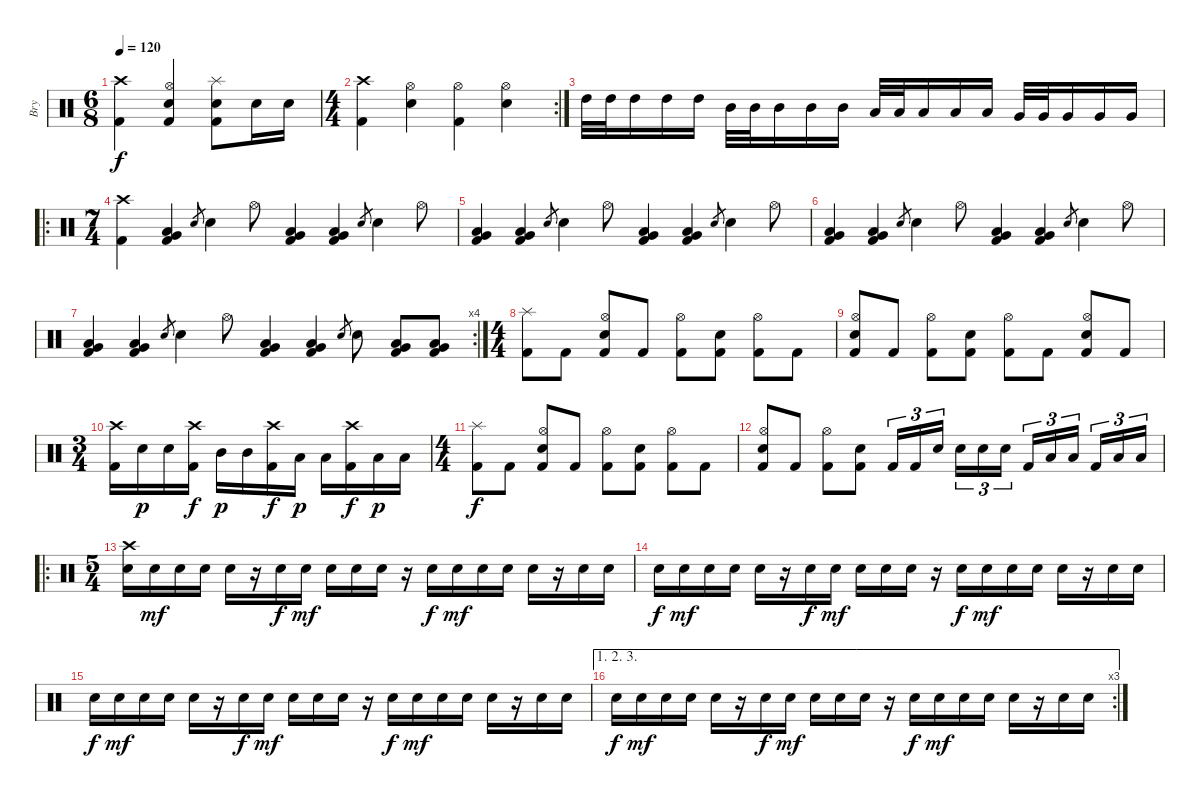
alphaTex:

\track ("Bry" "Bry") {instrument percussion}
\staff {score}
\articulation defaults
\ts (6 8)
\tempo 120
\clef neutral
\ks c
("Crash high (hit)" "Kick (hit) 2").4{dy f} ("Hi-Hat (open)" "Snare (hit) 2" "Kick (hit) 2").4 ("Splash (hit)" "Snare (hit) 2" "Kick (hit) 2").8 "Snare (hit) 2".16 "Snare (hit) 2".16 |
\rc 2
\ts (4 4)
("Crash high (hit)" "Kick (hit) 2").4 ("Hi-Hat (open)" "Snare (hit) 2").4 ("Hi-Hat (open)" "Kick (hit) 2").4 ("Hi-Hat (open)" "Snare (hit) 2").4 |
"High Tom (hit)".32 "High Tom (hit)".32 "High Tom (hit)".16 "High Tom (hit)".16 "High Tom (hit)".16 "Mid Tom (hit)".32 "Mid Tom (hit)".32 "Mid Tom (hit)".16 "Mid Tom (hit)".16 "Mid Tom (hit)".16 "Low Tom (hit)".32 "Low Tom (hit)".32 "Low Tom (hit)".16 "Low Tom (hit)".16 "Low Tom (hit)".16 "Very Low Tom (hit)".32 "Very Low Tom (hit)".32 "Very Low Tom (hit)".16 "Very Low Tom (hit)".16 "Very Low Tom (hit)".16 |
\ro
\ts (7 4)
("Crash high (hit)" "Kick (hit) 2").4 ("Low Floor Tom (hit)" "Very Low Tom (hit)" "Kick (hit) 2").4 "Snare (hit) 2".8{gr} "Snare (hit) 2".4 "Hi-Hat (open)".8 ("Low Floor Tom (hit)" "Very Low Tom (hit)" "Kick (hit) 2").4 ("Low Floor Tom (hit)" "Very Low Tom (hit)" "Kick (hit) 2").4 "Snare (hit) 2".8{gr} "Snare (hit) 2".4 "Hi-Hat (open)".8 |
("Low Floor Tom (hit)" "Very Low Tom (hit)" "Kick (hit) 2").4 ("Low Floor Tom (hit)" "Very Low Tom (hit)" "Kick (hit) 2").4 "Snare (hit) 2".8{gr} "Snare (hit) 2".4 "Hi-Hat (open)".8 ("Low Floor Tom (hit)" "Very Low Tom (hit)" "Kick (hit) 2").4 ("Low Floor Tom (hit)" "Very Low Tom (hit)" "Kick (hit) 2").4 "Snare (hit) 2".8{gr} "Snare (hit) 2".4 "Hi-Hat (open)".8 |
("Low Floor Tom (hit)" "Very Low Tom (hit)" "Kick (hit) 2").4 ("Low Floor Tom (hit)" "Very Low Tom (hit)" "Kick (hit) 2").4 "Snare (hit) 2".8{gr} "Snare (hit) 2".4 "Hi-Hat (open)".8 ("Low Floor Tom (hit)" "Very Low Tom (hit)" "Kick (hit) 2").4 ("Low Floor Tom (hit)" "Very Low Tom (hit)" "Kick (hit) 2").4 "Snare (hit) 2".8{gr} "Snare (hit) 2".4 "Hi-Hat (open)".8 |
\rc 4
("Low Floor Tom (hit)" "Very Low Tom (hit)" "Kick (hit) 2").4 ("Low Floor Tom (hit)" "Very Low Tom (hit)" "Kick (hit) 2").4 "Snare (hit) 2".8{gr} "Snare (hit) 2".4 "Hi-Hat (open)".8 ("Low Floor Tom (hit)" "Very Low Tom (hit)" "Kick (hit) 2").4 ("Low Floor Tom (hit)" "Very Low Tom (hit)" "Kick (hit) 2").4 "Snare (hit) 2".8{gr} "Snare (hit) 2".8 ("Very Low Tom (hit)" "Low Floor Tom (hit)" "Kick (hit) 2").8 ("Very Low Tom (hit)" "Low Floor Tom (hit)" "Kick (hit) 2").8 |
\ts (4 4)
("Splash (hit)" "Kick (hit) 2").8 "Kick (hit) 2".8 ("Hi-Hat (open)" "Snare (hit) 2" "Kick (hit) 2").8 "Kick (hit) 2".8 ("Hi-Hat (open)" "Kick (hit) 2").8 ("Snare (hit) 2" "Kick (hit) 2").8 ("Hi-Hat (open)" "Kick (hit) 2").8 "Kick (hit) 2".8 |
("Hi-Hat (open)" "Snare (hit) 2" "Kick (hit) 2").8 "Kick (hit) 2".8 ("Hi-Hat (open)" "Kick (hit) 2").8 ("Snare (hit) 2" "Kick (hit) 2").8 ("Hi-Hat (open)" "Kick (hit) 2").8 "Kick (hit) 2".8 ("Hi-Hat (open)" "Snare (hit) 2" "Kick (hit) 2").8 "Kick (hit) 2".8 |
\ts (3 4)
("Crash high (hit)" "Kick (hit) 2").16 "Snare (hit) 2".16{dy p} "Snare (hit) 2".16 ("Crash high (hit)" "Kick (hit) 2").16{dy f} "Mid Tom (hit)".16{dy p} "Mid Tom (hit)".16 ("Crash high (hit)" "Kick (hit) 2").16{dy f} "Low Tom (hit)".16{dy p} "Low Tom (hit)".16 ("Crash high (hit)" "Kick (hit) 2").16{dy f} "Low Tom (hit)".16{dy p} "Low Tom (hit)".16 |
\ts (4 4)
("Splash (hit)" "Kick (hit) 2").8{dy f} "Kick (hit) 2".8 ("Hi-Hat (open)" "Snare (hit) 2" "Kick (hit) 2").8 "Kick (hit) 2".8 ("Hi-Hat (open)" "Kick (hit) 2").8 ("Snare (hit) 2" "Kick (hit) 2").8 ("Hi-Hat (open)" "Kick (hit) 2").8 "Kick (hit) 2".8 |
("Hi-Hat (open)" "Snare (hit) 2" "Kick (hit) 2").8 "Kick (hit) 2".8 ("Hi-Hat (open)" "Kick (hit) 2").8 ("Snare (hit) 2" "Kick (hit) 2").8 "Kick (hit) 2".16{tu (3 2)} "Kick (hit) 2".16{tu (3 2)} "Snare (hit) 2".16{tu (3 2)} "Snare (hit) 2".16{tu (3 2)} "Snare (hit) 2".16{tu (3 2)} "Snare (hit) 2".16{tu (3 2)} "Kick (hit) 2".16{tu (3 2)} "Low Tom (hit)".16{tu (3 2)} "Low Tom (hit)".16{tu (3 2)} "Kick (hit) 2".16{tu (3 2)} "Low Tom (hit)".16{tu (3 2)} "Low Tom (hit)".16{tu (3 2)} |
\ro
\ts (5 4)
("Crash high (hit)" "Snare (hit) 2").16 "Snare (hit) 2".16{dy mf} "Snare (hit) 2".16 "Snare (hit) 2".16 "Snare (hit) 2".16 r.16 "Snare (hit) 2".16{dy f} "Snare (hit) 2".16{dy mf} "Snare (hit) 2".16 "Snare (hit) 2".16 "Snare (hit) 2".16 r.16 "Snare (hit) 2".16{dy f} "Snare (hit) 2".16{dy mf} "Snare (hit) 2".16 "Snare (hit) 2".16 "Snare (hit) 2".16 r.16 "Snare (hit) 2".16 "Snare (hit) 2".16 |
"Snare (hit) 2".16{dy f} "Snare (hit) 2".16{dy mf} "Snare (hit) 2".16 "Snare (hit) 2".16 "Snare (hit) 2".16 r.16 "Snare (hit) 2".16{dy f} "Snare (hit) 2".16{dy mf} "Snare (hit) 2".16 "Snare (hit) 2".16 "Snare (hit) 2".16 r.16 "Snare (hit) 2".16{dy f} "Snare (hit) 2".16{dy mf} "Snare (hit) 2".16 "Snare (hit) 2".16 "Snare (hit) 2".16 r.16 "Snare (hit) 2".16 "Snare (hit) 2".16 |
"Snare (hit) 2".16{dy f} "Snare (hit) 2".16{dy mf} "Snare (hit) 2".16 "Snare (hit) 2".16 "Snare (hit) 2".16 r.16 "Snare (hit) 2".16{dy f} "Snare (hit) 2".16{dy mf} "Snare (hit) 2".16 "Snare (hit) 2".16 "Snare (hit) 2".16 r.16 "Snare (hit) 2".16{dy f} "Snare (hit) 2".16{dy mf} "Snare (hit) 2".16 "Snare (hit) 2".16 "Snare (hit) 2".16 r.16 "Snare (hit) 2".16 "Snare (hit) 2".16 |
\ae (1 2 3)
\rc 3 "Snare (hit) 2".16{dy f} "Snare (hit) 2".16{dy mf} "Snare (hit) 2".16 "Snare (hit) 2".16 "Snare (hit) 2".16
r.16 "Snare (hit) 2".16{dy f} "Snare (hit) 2".16{dy mf} "Snare (hit) 2".16 "Snare (hit) 2".16 "Snare (hit) 2".16 r.16 "Snare (hit) 2".16{dy f} "Snare (hit) 2".16{dy mf} "Snare (hit) 2".16 "Snare (hit) 2".16 "Snare (hit) 2".16 r.16 "Snare (hit) 2".16 "Snare (hit) 2".16
